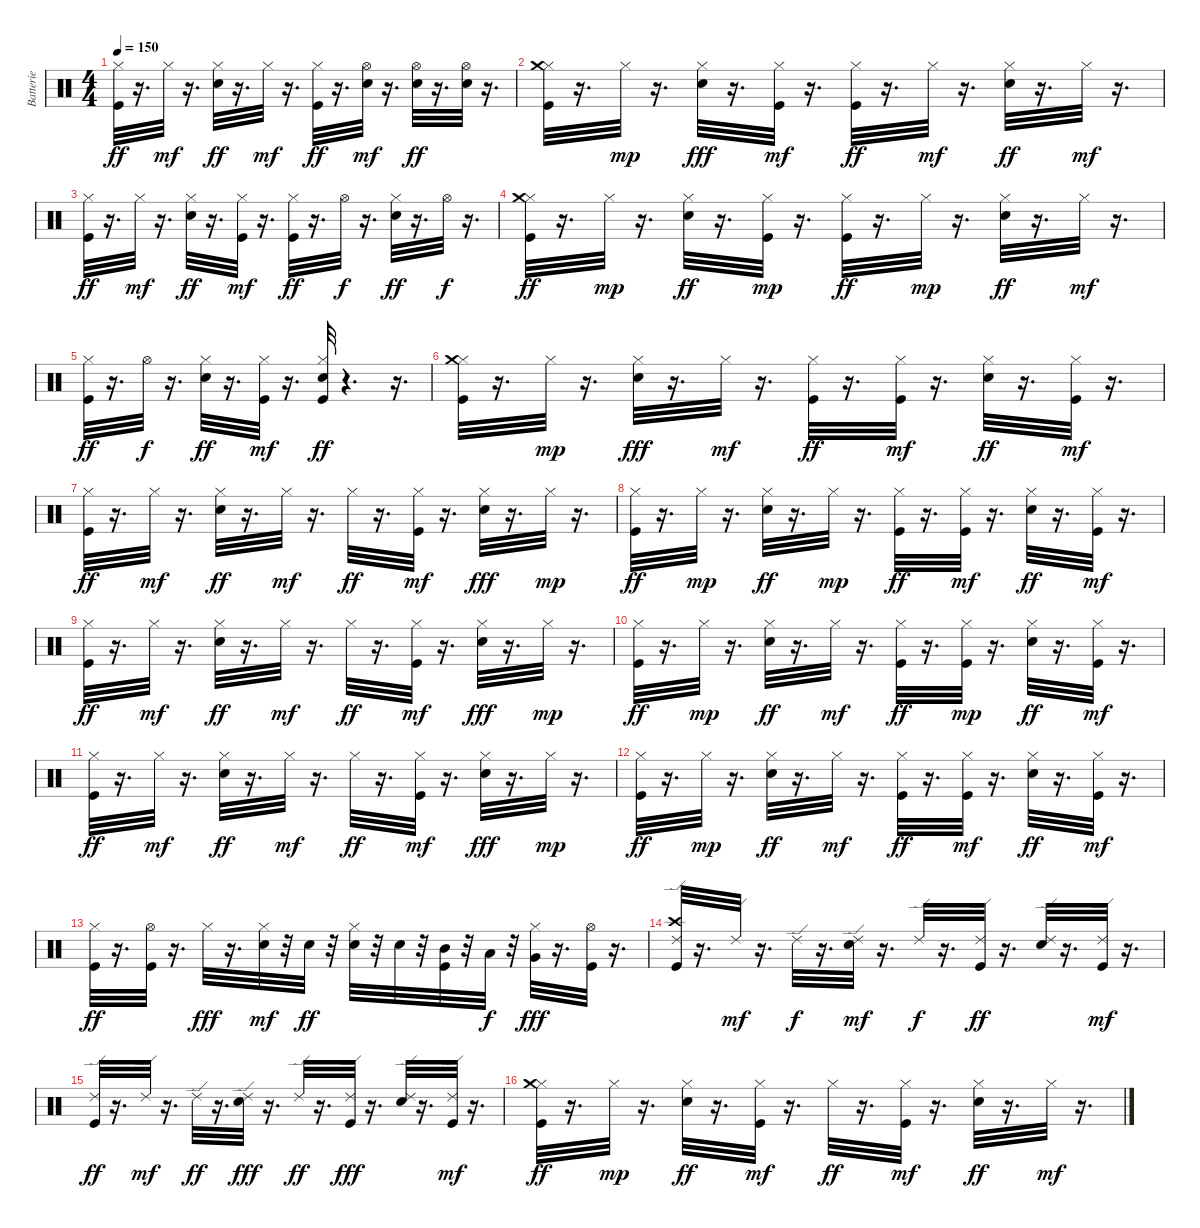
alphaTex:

\track ("Batterie" "Batterie") {instrument percussion}
\staff {score}
\articulation defaults
\ts (4 4)
\tempo 150
\clef neutral
\ks c
("Kick (hit)" "Hi-Hat (closed)").32{dy ff} r.16{d} "Hi-Hat (closed)".32{dy mf} r.16{d} ("Snare (hit) 2" "Hi-Hat (closed)").32{dy ff} r.16{d} "Hi-Hat (closed)".32{dy mf} r.16{d} ("Kick (hit)" "Hi-Hat (closed)").32{dy ff} r.16{d} ("Snare (hit) 2" "Hi-Hat (open)").32{dy mf} r.16{d} ("Snare (hit) 2" "Hi-Hat (open)").32{dy ff} r.16{d} ("Snare (hit) 2" "Hi-Hat (open)").32 r.16{d} |
("Kick (hit)" "Hi-Hat (closed)" "Crash medium (hit)").32 r.16{d} "Hi-Hat (closed)".32{dy mp} r.16{d} ("Snare (hit) 2" "Hi-Hat (closed)").32{dy fff} r.16{d} ("Kick (hit)" "Hi-Hat (closed)").32{dy mf} r.16{d} ("Kick (hit)" "Hi-Hat (closed)").32{dy ff} r.16{d} "Hi-Hat (closed)".32{dy mf} r.16{d} ("Snare (hit) 2" "Hi-Hat (closed)").32{dy ff} r.16{d} "Hi-Hat (closed)".32{dy mf} r.16{d} |
("Kick (hit)" "Hi-Hat (closed)").32{dy ff} r.16{d} "Hi-Hat (closed)".32{dy mf} r.16{d} ("Snare (hit) 2" "Hi-Hat (closed)").32{dy ff} r.16{d} ("Kick (hit)" "Hi-Hat (closed)").32{dy mf} r.16{d} ("Kick (hit)" "Hi-Hat (closed)").32{dy ff} r.16{d} "Hi-Hat (open)".32{dy f} r.16{d} ("Snare (hit) 2" "Hi-Hat (closed)").32{dy ff} r.16{d} "Hi-Hat (open)".32{dy f} r.16{d} |
("Kick (hit)" "Hi-Hat (closed)" "Crash medium (hit)").32{dy ff} r.16{d} "Hi-Hat (closed)".32{dy mp} r.16{d} ("Snare (hit) 2" "Hi-Hat (closed)").32{dy ff} r.16{d} ("Kick (hit)" "Hi-Hat (closed)").32{dy mp} r.16{d} ("Kick (hit)" "Hi-Hat (closed)").32{dy ff} r.16{d} "Hi-Hat (closed)".32{dy mp} r.16{d} ("Snare (hit) 2" "Hi-Hat (closed)").32{dy ff} r.16{d} "Hi-Hat (closed)".32{dy mf} r.16{d} |
("Kick (hit)" "Hi-Hat (closed)").32{dy ff} r.16{d} "Hi-Hat (open)".32{dy f} r.16{d} ("Snare (hit) 2" "Hi-Hat (closed)").32{dy ff} r.16{d} ("Kick (hit)" "Hi-Hat (closed)").32{dy mf} r.16{d} ("Kick (hit)" "Snare (hit) 2" "Hi-Hat (closed)").32{dy ff} r.4{d} r.16{d} |
("Kick (hit)" "Hi-Hat (closed)" "Crash medium (hit)").32 r.16{d} "Hi-Hat (closed)".32{dy mp} r.16{d} ("Snare (hit) 2" "Hi-Hat (closed)").32{dy fff} r.16{d} "Hi-Hat (closed)".32{dy mf} r.16{d} ("Kick (hit)" "Hi-Hat (closed)").32{dy ff} r.16{d} ("Kick (hit)" "Hi-Hat (closed)").32{dy mf} r.16{d} ("Snare (hit) 2" "Hi-Hat (closed)").32{dy ff} r.16{d} ("Kick (hit)" "Hi-Hat (closed)").32{dy mf} r.16{d} |
("Kick (hit)" "Hi-Hat (closed)").32{dy ff} r.16{d} "Hi-Hat (closed)".32{dy mf} r.16{d} ("Snare (hit) 2" "Hi-Hat (closed)").32{dy ff} r.16{d} "Hi-Hat (closed)".32{dy mf} r.16{d} "Hi-Hat (closed)".32{dy ff} r.16{d} ("Kick (hit)" "Hi-Hat (closed)").32{dy mf} r.16{d} ("Snare (hit) 2" "Hi-Hat (closed)").32{dy fff} r.16{d} "Hi-Hat (closed)".32{dy mp} r.16{d} |
("Kick (hit)" "Hi-Hat (closed)").32{dy ff} r.16{d} "Hi-Hat (closed)".32{dy mp} r.16{d} ("Snare (hit) 2" "Hi-Hat (closed)").32{dy ff} r.16{d} "Hi-Hat (closed)".32{dy mp} r.16{d} ("Kick (hit)" "Hi-Hat (closed)").32{dy ff} r.16{d} ("Kick (hit)" "Hi-Hat (closed)").32{dy mf} r.16{d} ("Snare (hit) 2" "Hi-Hat (closed)").32{dy ff} r.16{d} ("Kick (hit)" "Hi-Hat (closed)").32{dy mf} r.16{d} |
("Kick (hit)" "Hi-Hat (closed)").32{dy ff} r.16{d} "Hi-Hat (closed)".32{dy mf} r.16{d} ("Snare (hit) 2" "Hi-Hat (closed)").32{dy ff} r.16{d} "Hi-Hat (closed)".32{dy mf} r.16{d} "Hi-Hat (closed)".32{dy ff} r.16{d} ("Kick (hit)" "Hi-Hat (closed)").32{dy mf} r.16{d} ("Snare (hit) 2" "Hi-Hat (closed)").32{dy fff} r.16{d} "Hi-Hat (closed)".32{dy mp} r.16{d} |
("Kick (hit)" "Hi-Hat (closed)").32{dy ff} r.16{d} "Hi-Hat (closed)".32{dy mp} r.16{d} ("Snare (hit) 2" "Hi-Hat (closed)").32{dy ff} r.16{d} "Hi-Hat (closed)".32{dy mf} r.16{d} ("Kick (hit)" "Hi-Hat (closed)").32{dy ff} r.16{d} ("Kick (hit)" "Hi-Hat (closed)").32{dy mp} r.16{d} ("Snare (hit) 2" "Hi-Hat (closed)").32{dy ff} r.16{d} ("Kick (hit)" "Hi-Hat (closed)").32{dy mf} r.16{d} |
("Kick (hit)" "Hi-Hat (closed)").32{dy ff} r.16{d} "Hi-Hat (closed)".32{dy mf} r.16{d} ("Snare (hit) 2" "Hi-Hat (closed)").32{dy ff} r.16{d} "Hi-Hat (closed)".32{dy mf} r.16{d} "Hi-Hat (closed)".32{dy ff} r.16{d} ("Kick (hit)" "Hi-Hat (closed)").32{dy mf} r.16{d} ("Snare (hit) 2" "Hi-Hat (closed)").32{dy fff} r.16{d} "Hi-Hat (closed)".32{dy mp} r.16{d} |
("Kick (hit)" "Hi-Hat (closed)").32{dy ff} r.16{d} "Hi-Hat (closed)".32{dy mp} r.16{d} ("Snare (hit) 2" "Hi-Hat (closed)").32{dy ff} r.16{d} "Hi-Hat (closed)".32{dy mf} r.16{d} ("Kick (hit)" "Hi-Hat (closed)").32{dy ff} r.16{d} ("Kick (hit)" "Hi-Hat (closed)").32{dy mf} r.16{d} ("Snare (hit) 2" "Hi-Hat (closed)").32{dy ff} r.16{d} ("Kick (hit)" "Hi-Hat (closed)").32{dy mf} r.16{d} |
("Kick (hit)" "Hi-Hat (closed)").32{dy ff} r.16{d} ("Kick (hit)" "Hi-Hat (open)").32 r.16{d} "Hi-Hat (closed)".32{dy fff} r.16{d} ("Snare (hit) 2" "Hi-Hat (closed)").32{dy mf} r.32 "Snare (hit) 2".32{dy ff} r.32 ("Snare (hit) 2" "Hi-Hat (closed)").32 r.32 "Snare (hit) 2".32 r.32 ("Kick (hit)" "Mid Tom (hit)").32 r.32 "Low Tom (hit)".32{dy f} r.32 ("Hi-Hat (closed)" "Very Low Tom (hit)").32{dy fff} r.16{d} ("Kick (hit)" "Hi-Hat (open)").32 r.16{d} |
("Kick (hit)" "Crash high (hit)" "Ride (edge) 2").32 r.16{d} "Ride (edge) 2".32{dy mf} r.16{d} "Ride (edge) 2".32{dy f} r.16{d} ("Snare (hit) 2" "Ride (edge) 2").32{dy mf} r.16{d} "Ride (edge) 2".32{dy f} r.16{d} ("Kick (hit)" "Ride (edge) 2").32{dy ff} r.16{d} ("Snare (hit) 2" "Ride (edge) 2").32 r.16{d} ("Kick (hit)" "Ride (edge) 2").32{dy mf} r.16{d} |
("Kick (hit)" "Ride (edge) 2").32{dy ff} r.16{d} "Ride (edge) 2".32{dy mf} r.16{d} "Ride (edge) 2".32{dy ff} r.16{d} ("Snare (hit) 2" "Ride (edge) 2").32{dy fff} r.16{d} "Ride (edge) 2".32{dy ff} r.16{d} ("Kick (hit)" "Ride (edge) 2").32{dy fff} r.16{d} ("Snare (hit) 2" "Ride (edge) 2").32 r.16{d} ("Kick (hit)" "Ride (edge) 2").32{dy mf} r.16{d} |
("Kick (hit)" "Hi-Hat (closed)" "Crash medium (hit)").32{dy ff} r.16{d} "Hi-Hat (closed)".32{dy mp} r.16{d} ("Snare (hit) 2" "Hi-Hat (closed)").32{dy ff} r.16{d} ("Kick (hit)" "Hi-Hat (closed)").32{dy mf} r.16{d} "Hi-Hat (closed)".32{dy ff} r.16{d} ("Kick (hit)" "Hi-Hat (closed)").32{dy mf} r.16{d} ("Snare (hit) 2" "Hi-Hat (closed)").32{dy ff} r.16{d} "Hi-Hat (closed)".32{dy mf} r.16{d}
